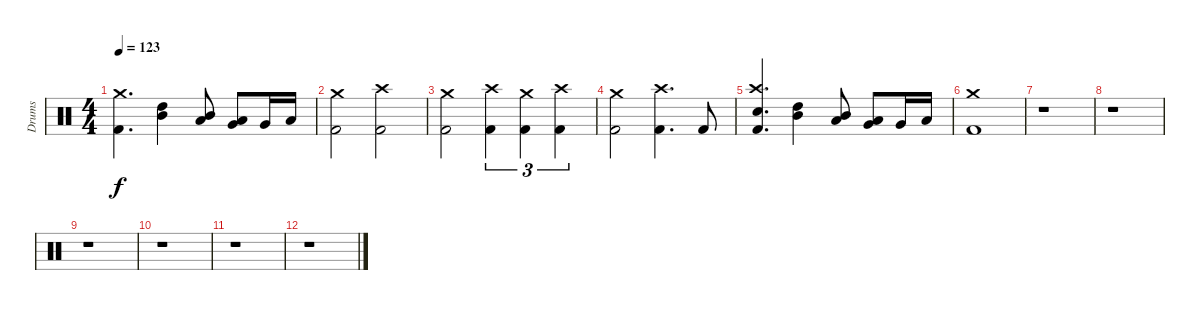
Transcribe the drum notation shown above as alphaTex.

\track ("Drums" "Drums") {instrument percussion}
\staff {score}
\articulation defaults
\ts (4 4)
\tempo 123
\clef neutral
\ks c
("Crash medium (hit)" "Kick (hit) 2").4{d dy f} ("High Tom (hit)" "Mid Tom (hit)").4 ("Mid Tom (hit)" "Low Tom (hit)").8 ("Low Tom (hit)" "Very Low Tom (hit)").8 "Very Low Tom (hit)".16 "Low Floor Tom (hit)".16 |
("Crash medium (hit)" "Kick (hit) 2").2 ("Crash high (hit)" "Kick (hit) 2").2 |
("Crash medium (hit)" "Kick (hit) 2").2 ("Crash high (hit)" "Kick (hit) 2").4{tu (3 2)} ("Crash medium (hit)" "Kick (hit) 2").4{tu (3 2)} ("Crash high (hit)" "Kick (hit) 2").4{tu (3 2)} |
("Crash medium (hit)" "Kick (hit) 2").2 ("Crash high (hit)" "Kick (hit) 2").4{d} "Kick (hit) 2".8 |
("Crash high (hit)" "Snare (hit) 2" "Kick (hit) 2").4{d} ("High Tom (hit)" "Mid Tom (hit)").4 ("Mid Tom (hit)" "Low Tom (hit)").8 ("Low Tom (hit)" "Very Low Tom (hit)").8 "Very Low Tom (hit)".16 "Low Floor Tom (hit)".16 |
("Crash medium (hit)" "Kick (hit) 2").1 |
r.1 |
r.1 |
r.1 |
r.1 |
r.1 |
r.1
